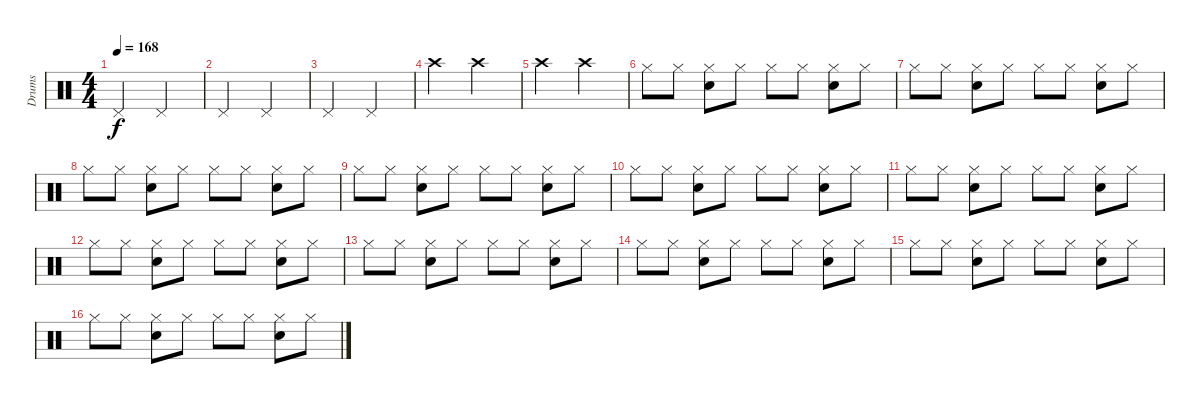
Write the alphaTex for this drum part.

\track ("Drums" "Drums") {instrument percussion}
\staff {score}
\articulation defaults
\ts (4 4)
\tempo 168
\clef neutral
\ks c "Pedal Hi-Hat (hit)".2{dy f} "Pedal Hi-Hat (hit)".2
|
"Pedal Hi-Hat (hit)".2 "Pedal Hi-Hat (hit)".2 |
"Pedal Hi-Hat (hit)".2 "Pedal Hi-Hat (hit)".2 |
"Crash high (hit)".2 "Crash high (hit)".2 |
"Crash high (hit)".2 "Crash high (hit)".2 |
"Hi-Hat (closed)".8 "Hi-Hat (closed)".8 ("Hi-Hat (closed)" "Electric Snare (hit)").8 "Hi-Hat (closed)".8 "Hi-Hat (closed)".8 "Hi-Hat (closed)".8 ("Hi-Hat (closed)" "Electric Snare (hit)").8 "Hi-Hat (closed)".8 |
"Hi-Hat (closed)".8 "Hi-Hat (closed)".8 ("Hi-Hat (closed)" "Electric Snare (hit)").8 "Hi-Hat (closed)".8 "Hi-Hat (closed)".8 "Hi-Hat (closed)".8 ("Hi-Hat (closed)" "Electric Snare (hit)").8 "Hi-Hat (closed)".8 |
"Hi-Hat (closed)".8 "Hi-Hat (closed)".8 ("Hi-Hat (closed)" "Electric Snare (hit)").8 "Hi-Hat (closed)".8 "Hi-Hat (closed)".8 "Hi-Hat (closed)".8 ("Hi-Hat (closed)" "Electric Snare (hit)").8 "Hi-Hat (closed)".8 |
"Hi-Hat (closed)".8 "Hi-Hat (closed)".8 ("Hi-Hat (closed)" "Electric Snare (hit)").8 "Hi-Hat (closed)".8 "Hi-Hat (closed)".8 "Hi-Hat (closed)".8 ("Hi-Hat (closed)" "Electric Snare (hit)").8 "Hi-Hat (closed)".8 |
"Hi-Hat (closed)".8 "Hi-Hat (closed)".8 ("Hi-Hat (closed)" "Electric Snare (hit)").8 "Hi-Hat (closed)".8 "Hi-Hat (closed)".8 "Hi-Hat (closed)".8 ("Hi-Hat (closed)" "Electric Snare (hit)").8 "Hi-Hat (closed)".8 |
"Hi-Hat (closed)".8 "Hi-Hat (closed)".8 ("Hi-Hat (closed)" "Electric Snare (hit)").8 "Hi-Hat (closed)".8 "Hi-Hat (closed)".8 "Hi-Hat (closed)".8 ("Hi-Hat (closed)" "Electric Snare (hit)").8 "Hi-Hat (closed)".8 |
"Hi-Hat (closed)".8 "Hi-Hat (closed)".8 ("Hi-Hat (closed)" "Electric Snare (hit)").8 "Hi-Hat (closed)".8 "Hi-Hat (closed)".8 "Hi-Hat (closed)".8 ("Hi-Hat (closed)" "Electric Snare (hit)").8 "Hi-Hat (closed)".8 |
"Hi-Hat (closed)".8 "Hi-Hat (closed)".8 ("Hi-Hat (closed)" "Electric Snare (hit)").8 "Hi-Hat (closed)".8 "Hi-Hat (closed)".8 "Hi-Hat (closed)".8 ("Hi-Hat (closed)" "Electric Snare (hit)").8 "Hi-Hat (closed)".8 |
"Hi-Hat (closed)".8 "Hi-Hat (closed)".8 ("Hi-Hat (closed)" "Electric Snare (hit)").8 "Hi-Hat (closed)".8 "Hi-Hat (closed)".8 "Hi-Hat (closed)".8 ("Hi-Hat (closed)" "Electric Snare (hit)").8 "Hi-Hat (closed)".8 |
"Hi-Hat (closed)".8 "Hi-Hat (closed)".8 ("Hi-Hat (closed)" "Electric Snare (hit)").8 "Hi-Hat (closed)".8 "Hi-Hat (closed)".8 "Hi-Hat (closed)".8 ("Hi-Hat (closed)" "Electric Snare (hit)").8 "Hi-Hat (closed)".8 |
"Hi-Hat (closed)".8 "Hi-Hat (closed)".8 ("Hi-Hat (closed)" "Electric Snare (hit)").8 "Hi-Hat (closed)".8 "Hi-Hat (closed)".8 "Hi-Hat (closed)".8 ("Hi-Hat (closed)" "Electric Snare (hit)").8 "Hi-Hat (closed)".8
